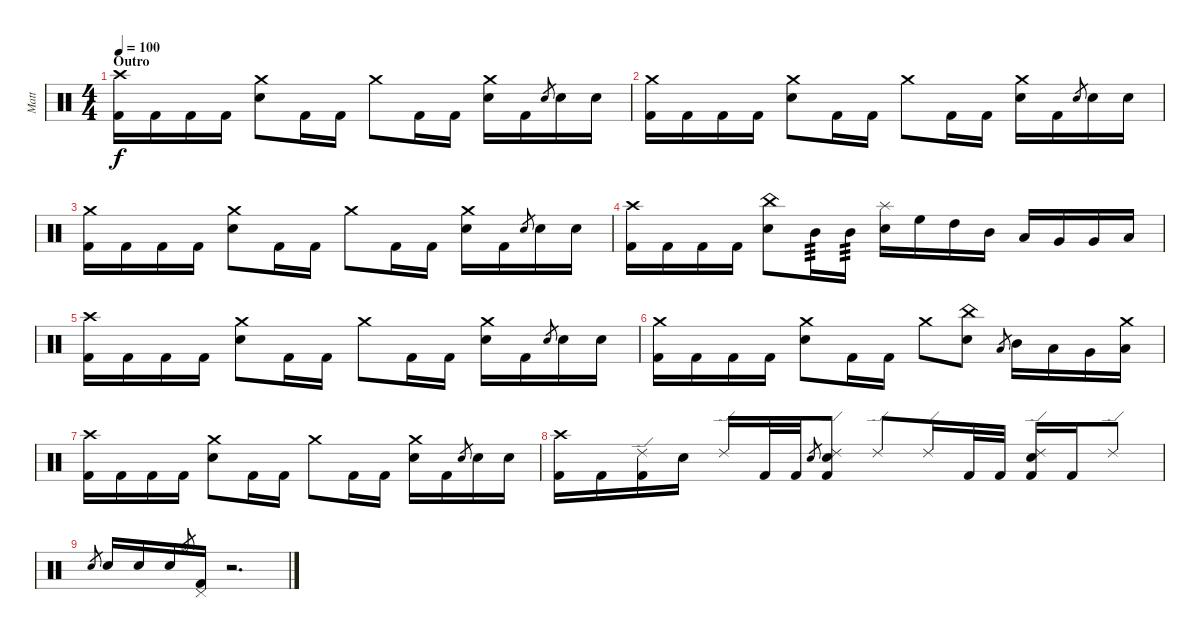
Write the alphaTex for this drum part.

\track ("Matt" "Matt") {instrument percussion}
\staff {score}
\articulation defaults
\ts (4 4)
\section ("" "Outro")
\tempo 100
\clef neutral
\ks c
("Crash high (hit)" "Kick (hit) 2").16{dy f} "Kick (hit) 2".16 "Kick (hit) 2".16 "Kick (hit) 2".16 ("Crash medium (hit)" "Electric Snare (hit)").8 "Kick (hit) 2".16 "Kick (hit) 2".16 "Crash medium (hit)".8 "Kick (hit) 2".16 "Kick (hit) 2".16 ("Crash medium (hit)" "Electric Snare (hit)").16 "Kick (hit) 2".16 "Electric Snare (hit)".8{gr} "Electric Snare (hit)".16 "Electric Snare (hit)".16 |
("Crash medium (hit)" "Kick (hit) 2").16 "Kick (hit) 2".16 "Kick (hit) 2".16 "Kick (hit) 2".16 ("Crash medium (hit)" "Electric Snare (hit)").8 "Kick (hit) 2".16 "Kick (hit) 2".16 "Crash medium (hit)".8 "Kick (hit) 2".16 "Kick (hit) 2".16 ("Crash medium (hit)" "Electric Snare (hit)").16 "Kick (hit) 2".16 "Electric Snare (hit)".8{gr} "Electric Snare (hit)".16 "Electric Snare (hit)".16 |
("Crash medium (hit)" "Kick (hit) 2").16 "Kick (hit) 2".16 "Kick (hit) 2".16 "Kick (hit) 2".16 ("Crash medium (hit)" "Electric Snare (hit)").8 "Kick (hit) 2".16 "Kick (hit) 2".16 "Crash medium (hit)".8 "Kick (hit) 2".16 "Kick (hit) 2".16 ("Crash medium (hit)" "Electric Snare (hit)").16 "Kick (hit) 2".16 "Electric Snare (hit)".8{gr} "Electric Snare (hit)".16 "Electric Snare (hit)".16 |
("Crash high (hit)" "Kick (hit) 2").16 "Kick (hit) 2".16 "Kick (hit) 2".16 "Kick (hit) 2".16 ("China (hit)" "Electric Snare (hit)").8 "Mid Tom (hit)".16{tp 3} "Mid Tom (hit)".16{tp 3} ("Splash (hit)" "Electric Snare (hit)").16 "High Floor Tom (hit)".16 "High Tom (hit)".16 "Mid Tom (hit)".16 "Low Tom (hit)".16 "Very Low Tom (hit)".16 "Very Low Tom (hit)".16 "Low Floor Tom (hit)".16 |
("Crash high (hit)" "Kick (hit) 2").16 "Kick (hit) 2".16 "Kick (hit) 2".16 "Kick (hit) 2".16 ("Crash medium (hit)" "Electric Snare (hit)").8 "Kick (hit) 2".16 "Kick (hit) 2".16 "Crash medium (hit)".8 "Kick (hit) 2".16 "Kick (hit) 2".16 ("Crash medium (hit)" "Electric Snare (hit)").16 "Kick (hit) 2".16 "Electric Snare (hit)".8{gr} "Electric Snare (hit)".16 "Electric Snare (hit)".16 |
("Crash medium (hit)" "Kick (hit) 2").16 "Kick (hit) 2".16 "Kick (hit) 2".16 "Kick (hit) 2".16 ("Crash medium (hit)" "Electric Snare (hit)").8 "Kick (hit) 2".16 "Kick (hit) 2".16 "Crash medium (hit)".8 ("China (hit)" "Electric Snare (hit)").8 "Low Tom (hit)".8{gr} "Mid Tom (hit)".16 "Low Tom (hit)".16 "Very Low Tom (hit)".16 ("Crash medium (hit)" "Low Floor Tom (hit)").16 |
("Crash high (hit)" "Kick (hit) 2").16 "Kick (hit) 2".16 "Kick (hit) 2".16 "Kick (hit) 2".16 ("Crash medium (hit)" "Electric Snare (hit)").8 "Kick (hit) 2".16 "Kick (hit) 2".16 "Crash medium (hit)".8 "Kick (hit) 2".16 "Kick (hit) 2".16 ("Crash medium (hit)" "Electric Snare (hit)").16 "Kick (hit) 2".16 "Electric Snare (hit)".8{gr} "Electric Snare (hit)".16 "Electric Snare (hit)".16 |
("Crash high (hit)" "Kick (hit) 2").16 "Kick (hit) 2".16 ("Ride (edge) 2" "Kick (hit) 2").16 "Electric Snare (hit)".16 "Ride (edge) 2".16 "Kick (hit) 2".32 "Kick (hit) 2".32 "Electric Snare (hit)".8{gr} ("Ride (edge) 2" "Electric Snare (hit)" "Kick (hit) 2").8 "Ride (edge) 2".8 "Ride (edge) 2".16 "Kick (hit) 2".32 "Kick (hit) 2".32 ("Ride (edge) 2" "Electric Snare (hit)" "Kick (hit) 2").16 "Kick (hit) 2".16 "Ride (edge) 2".8 |
"Electric Snare (hit)".8{gr} "Electric Snare (hit)".16 "Electric Snare (hit)".16 "Electric Snare (hit)".16 "Hi-Hat (open)".8{gr} ("Pedal Hi-Hat (hit)" "Kick (hit) 2").16 r.2{d}
